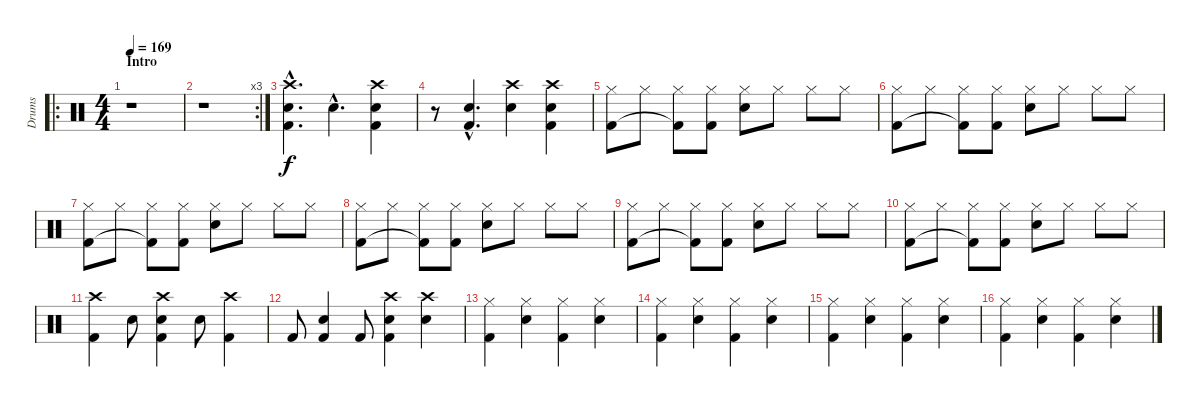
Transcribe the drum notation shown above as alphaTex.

\track ("Drums" "Drums") {instrument percussion}
\staff {score}
\articulation defaults
\ro
\ts (4 4)
\section ("" "Intro")
\tempo 169
\clef neutral
\ks c
r.1{dy f} |
\rc 3
r.1 |
("Crash high (hit)"{hac} "Snare (hit) 2"{hac} "Kick (hit) 2"{hac}).4{d} "Snare (hit) 2"{hac}.4{d} ("Crash high (hit)" "Snare (hit) 2" "Kick (hit) 2").4 |
r.8 ("Snare (hit) 2"{hac} "Kick (hit) 2"{hac}).4{d} ("Crash high (hit)" "Snare (hit) 2").4 ("Kick (hit) 2" "Crash high (hit)" "Snare (hit) 2").4 |
("Hi-Hat (closed)" "Kick (hit) 2").8 "Hi-Hat (closed)".8 ("Hi-Hat (closed)" "Kick (hit) 2"{t}).8 ("Hi-Hat (closed)" "Kick (hit) 2").8 ("Hi-Hat (closed)" "Snare (hit) 2").8 "Hi-Hat (closed)".8 "Hi-Hat (closed)".8 "Hi-Hat (closed)".8 |
("Hi-Hat (closed)" "Kick (hit) 2").8 "Hi-Hat (closed)".8 ("Hi-Hat (closed)" "Kick (hit) 2"{t}).8 ("Hi-Hat (closed)" "Kick (hit) 2").8 ("Hi-Hat (closed)" "Snare (hit) 2").8 "Hi-Hat (closed)".8 "Hi-Hat (closed)".8 "Hi-Hat (closed)".8 |
("Hi-Hat (closed)" "Kick (hit) 2").8 "Hi-Hat (closed)".8 ("Hi-Hat (closed)" "Kick (hit) 2"{t}).8 ("Hi-Hat (closed)" "Kick (hit) 2").8 ("Hi-Hat (closed)" "Snare (hit) 2").8 "Hi-Hat (closed)".8 "Hi-Hat (closed)".8 "Hi-Hat (closed)".8 |
("Hi-Hat (closed)" "Kick (hit) 2").8 "Hi-Hat (closed)".8 ("Hi-Hat (closed)" "Kick (hit) 2"{t}).8 ("Hi-Hat (closed)" "Kick (hit) 2").8 ("Hi-Hat (closed)" "Snare (hit) 2").8 "Hi-Hat (closed)".8 "Hi-Hat (closed)".8 "Hi-Hat (closed)".8 |
("Hi-Hat (closed)" "Kick (hit) 2").8 "Hi-Hat (closed)".8 ("Hi-Hat (closed)" "Kick (hit) 2"{t}).8 ("Hi-Hat (closed)" "Kick (hit) 2").8 ("Hi-Hat (closed)" "Snare (hit) 2").8 "Hi-Hat (closed)".8 "Hi-Hat (closed)".8 "Hi-Hat (closed)".8 |
("Hi-Hat (closed)" "Kick (hit) 2").8 "Hi-Hat (closed)".8 ("Hi-Hat (closed)" "Kick (hit) 2"{t}).8 ("Hi-Hat (closed)" "Kick (hit) 2").8 ("Hi-Hat (closed)" "Snare (hit) 2").8 "Hi-Hat (closed)".8 "Hi-Hat (closed)".8 "Hi-Hat (closed)".8 |
("Crash high (hit)" "Kick (hit) 2").4 "Snare (hit) 2".8 ("Crash high (hit)" "Snare (hit) 2" "Kick (hit) 2").4 "Snare (hit) 2".8 ("Crash high (hit)" "Kick (hit) 2").4 |
"Kick (hit) 2".8 ("Snare (hit) 2" "Kick (hit) 2").4 "Kick (hit) 2".8 ("Kick (hit) 2" "Crash high (hit)" "Snare (hit) 2").4 ("Crash high (hit)" "Snare (hit) 2").4 |
("Hi-Hat (closed)" "Kick (hit) 2").4 ("Hi-Hat (closed)" "Snare (hit) 2").4 ("Hi-Hat (closed)" "Kick (hit) 2").4 ("Hi-Hat (closed)" "Snare (hit) 2").4 |
("Hi-Hat (closed)" "Kick (hit) 2").4 ("Hi-Hat (closed)" "Snare (hit) 2").4 ("Hi-Hat (closed)" "Kick (hit) 2").4 ("Hi-Hat (closed)" "Snare (hit) 2").4 |
("Hi-Hat (closed)" "Kick (hit) 2").4 ("Hi-Hat (closed)" "Snare (hit) 2").4 ("Hi-Hat (closed)" "Kick (hit) 2").4 ("Hi-Hat (closed)" "Snare (hit) 2").4 |
("Hi-Hat (closed)" "Kick (hit) 2").4 ("Hi-Hat (closed)" "Snare (hit) 2").4 ("Hi-Hat (closed)" "Kick (hit) 2").4 ("Hi-Hat (closed)" "Snare (hit) 2").4
